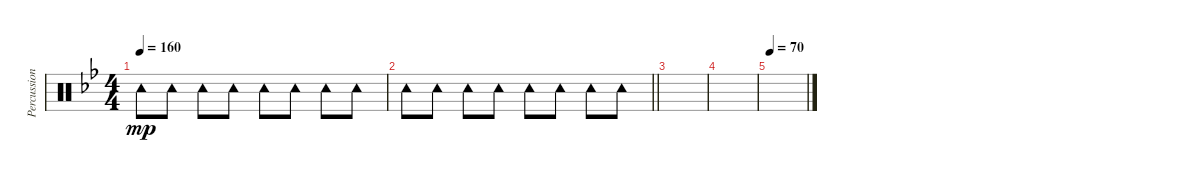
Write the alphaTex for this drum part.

\track ("Percussion (Tainaka Ritsu)" "Percussion") {instrument percussion}
\staff {score}
\articulation defaults
\ts (4 4)
\tempo 160
\clef neutral
\ks bb "Tambourine (hit)".8{dy mp} "Tambourine (hit)".8 "Tambourine (hit)".8 "Tambourine (hit)".8 "Tambourine (hit)".8 "Tambourine (hit)".8 "Tambourine (hit)".8 "Tambourine (hit)".8
|
\barLineRight lightlight "Tambourine (hit)".8 "Tambourine (hit)".8 "Tambourine (hit)".8 "Tambourine (hit)".8 "Tambourine (hit)".8 "Tambourine (hit)".8 "Tambourine (hit)".8 "Tambourine (hit)".8
|
|
|
\tempo 70
